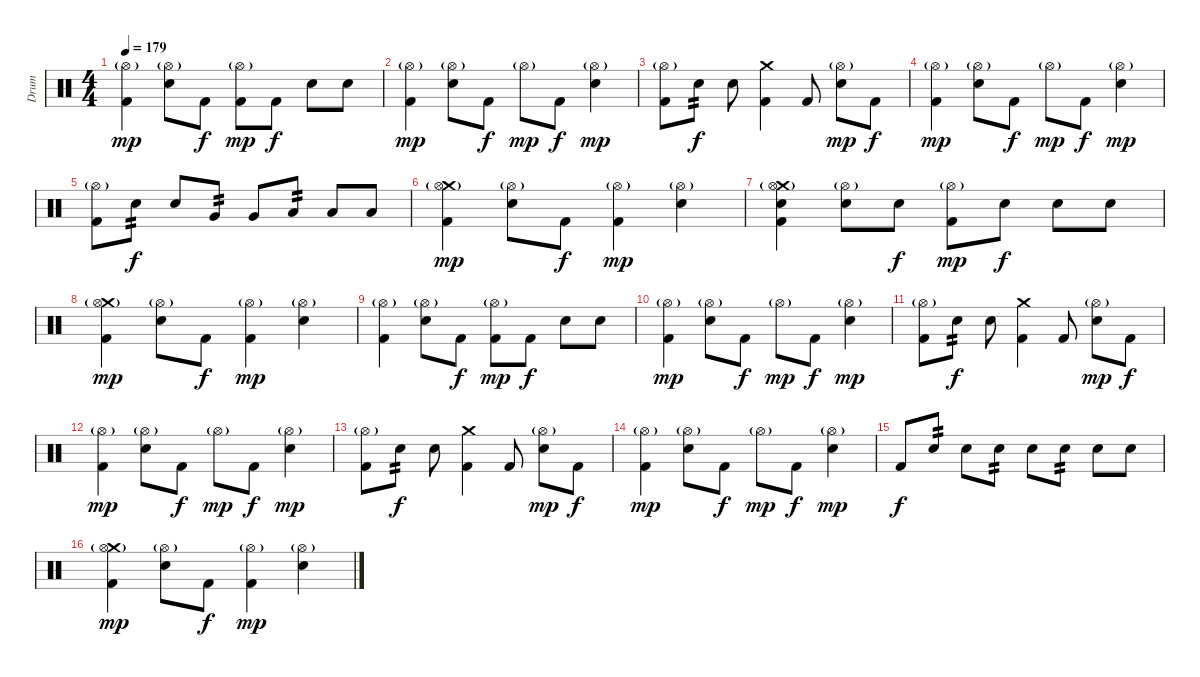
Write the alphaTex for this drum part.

\track ("Drum" "Drum") {instrument percussion}
\staff {score}
\articulation defaults
\ts (4 4)
\tempo 179
\clef neutral
\ks c
("Hi-Hat (open)"{g} "Kick (hit) 2").4{dy mp} ("Hi-Hat (open)"{g} "Electric Snare (hit)").8 "Kick (hit) 2".8{dy f} ("Hi-Hat (open)"{g} "Kick (hit) 2").8{dy mp} "Kick (hit) 2".8{dy f} "Electric Snare (hit)".8 "Electric Snare (hit)".8 |
("Hi-Hat (open)"{g} "Kick (hit) 2").4{dy mp} ("Hi-Hat (open)"{g} "Electric Snare (hit)").8 "Kick (hit) 2".8{dy f} "Hi-Hat (open)"{g}.8{dy mp} "Kick (hit) 2".8{dy f} ("Hi-Hat (open)"{g} "Electric Snare (hit)").4{dy mp} |
("Hi-Hat (open)"{g} "Kick (hit) 2").8 "Electric Snare (hit)".8{tp 2 dy f} "Electric Snare (hit)".8 ("Crash medium (hit)" "Kick (hit) 2").4 "Kick (hit) 2".8 ("Hi-Hat (open)"{g} "Electric Snare (hit)").8{dy mp} "Kick (hit) 2".8{dy f} |
("Hi-Hat (open)"{g} "Kick (hit) 2").4{dy mp} ("Hi-Hat (open)"{g} "Electric Snare (hit)").8 "Kick (hit) 2".8{dy f} "Hi-Hat (open)"{g}.8{dy mp} "Kick (hit) 2".8{dy f} ("Hi-Hat (open)"{g} "Electric Snare (hit)").4{dy mp} |
("Hi-Hat (open)"{g} "Kick (hit) 2").8 "Electric Snare (hit)".8{tp 2 dy f} "Electric Snare (hit)".8 "Very Low Tom (hit)".8{tp 2} "Very Low Tom (hit)".8 "Low Floor Tom (hit)".8{tp 2} "Low Floor Tom (hit)".8 "Low Floor Tom (hit)".8 |
("Crash medium (hit)" "Hi-Hat (open)"{g} "Kick (hit) 2").4{dy mp} ("Hi-Hat (open)"{g} "Electric Snare (hit)").8 "Kick (hit) 2".8{dy f} ("Hi-Hat (open)"{g} "Kick (hit) 2").4{dy mp} ("Hi-Hat (open)"{g} "Electric Snare (hit)").4 |
("Crash medium (hit)" "Hi-Hat (open)"{g} "Electric Snare (hit)" "Kick (hit) 2").4 ("Hi-Hat (open)"{g} "Electric Snare (hit)").8 "Electric Snare (hit)".8{dy f} ("Hi-Hat (open)"{g} "Kick (hit) 2").8{dy mp} "Electric Snare (hit)".8{dy f} "Electric Snare (hit)".8 "Electric Snare (hit)".8 |
("Crash medium (hit)" "Hi-Hat (open)"{g} "Kick (hit) 2").4{dy mp} ("Hi-Hat (open)"{g} "Electric Snare (hit)").8 "Kick (hit) 2".8{dy f} ("Hi-Hat (open)"{g} "Kick (hit) 2").4{dy mp} ("Hi-Hat (open)"{g} "Electric Snare (hit)").4 |
("Hi-Hat (open)"{g} "Kick (hit) 2").4 ("Hi-Hat (open)"{g} "Electric Snare (hit)").8 "Kick (hit) 2".8{dy f} ("Hi-Hat (open)"{g} "Kick (hit) 2").8{dy mp} "Kick (hit) 2".8{dy f} "Electric Snare (hit)".8 "Electric Snare (hit)".8 |
("Hi-Hat (open)"{g} "Kick (hit) 2").4{dy mp} ("Hi-Hat (open)"{g} "Electric Snare (hit)").8 "Kick (hit) 2".8{dy f} "Hi-Hat (open)"{g}.8{dy mp} "Kick (hit) 2".8{dy f} ("Hi-Hat (open)"{g} "Electric Snare (hit)").4{dy mp} |
("Hi-Hat (open)"{g} "Kick (hit) 2").8 "Electric Snare (hit)".8{tp 2 dy f} "Electric Snare (hit)".8 ("Crash medium (hit)" "Kick (hit) 2").4 "Kick (hit) 2".8 ("Hi-Hat (open)"{g} "Electric Snare (hit)").8{dy mp} "Kick (hit) 2".8{dy f} |
("Hi-Hat (open)"{g} "Kick (hit) 2").4{dy mp} ("Hi-Hat (open)"{g} "Electric Snare (hit)").8 "Kick (hit) 2".8{dy f} "Hi-Hat (open)"{g}.8{dy mp} "Kick (hit) 2".8{dy f} ("Hi-Hat (open)"{g} "Electric Snare (hit)").4{dy mp} |
("Hi-Hat (open)"{g} "Kick (hit) 2").8 "Electric Snare (hit)".8{tp 2 dy f} "Electric Snare (hit)".8 ("Crash medium (hit)" "Kick (hit) 2").4 "Kick (hit) 2".8 ("Hi-Hat (open)"{g} "Electric Snare (hit)").8{dy mp} "Kick (hit) 2".8{dy f} |
("Hi-Hat (open)"{g} "Kick (hit) 2").4{dy mp} ("Hi-Hat (open)"{g} "Electric Snare (hit)").8 "Kick (hit) 2".8{dy f} "Hi-Hat (open)"{g}.8{dy mp} "Kick (hit) 2".8{dy f} ("Hi-Hat (open)"{g} "Electric Snare (hit)").4{dy mp} |
"Kick (hit) 2".8{dy f} "Electric Snare (hit)".8{tp 2} "Electric Snare (hit)".8 "Electric Snare (hit)".8{tp 2} "Electric Snare (hit)".8 "Electric Snare (hit)".8{tp 2} "Electric Snare (hit)".8 "Electric Snare (hit)".8 |
("Crash medium (hit)" "Hi-Hat (open)"{g} "Kick (hit) 2").4{dy mp} ("Hi-Hat (open)"{g} "Electric Snare (hit)").8 "Kick (hit) 2".8{dy f} ("Hi-Hat (open)"{g} "Kick (hit) 2").4{dy mp} ("Hi-Hat (open)"{g} "Electric Snare (hit)").4
